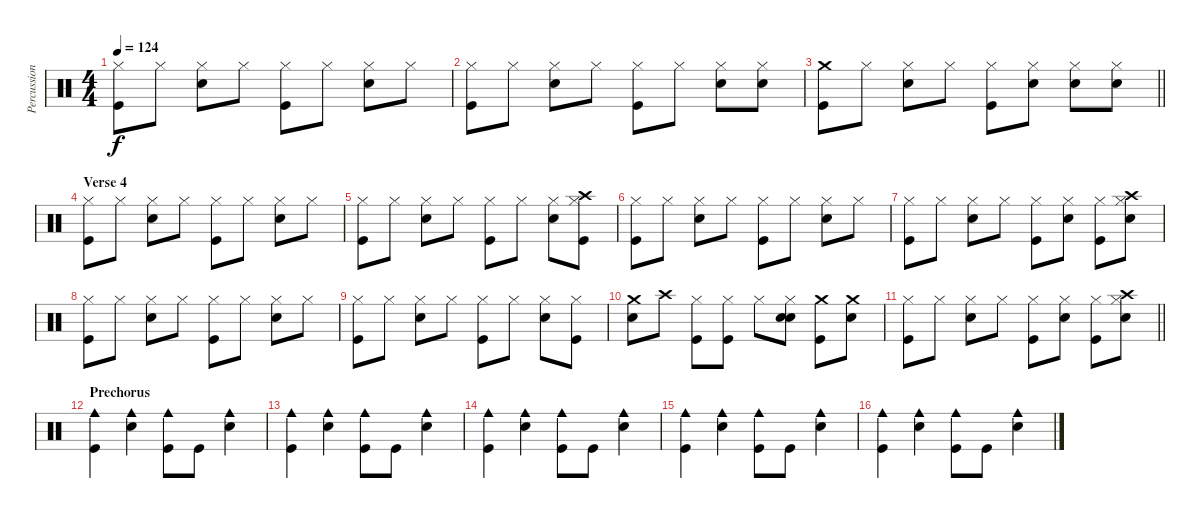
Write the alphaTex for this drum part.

\track ("Percussion" "Percussion") {instrument percussion}
\staff {score}
\articulation defaults
\ts (4 4)
\tempo 124
\clef neutral
\ks c
("Hi-Hat (closed)" "Kick (hit)").8{dy f} "Hi-Hat (closed)".8 ("Hi-Hat (closed)" "Electric Snare (hit)").8 "Hi-Hat (closed)".8 ("Hi-Hat (closed)" "Kick (hit)").8 "Hi-Hat (closed)".8 ("Hi-Hat (closed)" "Electric Snare (hit)").8 "Hi-Hat (closed)".8 |
("Hi-Hat (closed)" "Kick (hit)").8 "Hi-Hat (closed)".8 ("Hi-Hat (closed)" "Electric Snare (hit)").8 "Hi-Hat (closed)".8 ("Hi-Hat (closed)" "Kick (hit)").8 "Hi-Hat (closed)".8 ("Hi-Hat (closed)" "Electric Snare (hit)").8 ("Hi-Hat (closed)" "Electric Snare (hit)").8 |
\barLineRight lightlight
("Crash medium (hit)" "Kick (hit)").8 "Hi-Hat (closed)".8 ("Hi-Hat (closed)" "Electric Snare (hit)").8 "Hi-Hat (closed)".8 ("Hi-Hat (closed)" "Kick (hit)").8 ("Hi-Hat (closed)" "Electric Snare (hit)").8 ("Hi-Hat (closed)" "Electric Snare (hit)").8 ("Hi-Hat (closed)" "Electric Snare (hit)").8 |
\section ("" "Verse 4")
("Hi-Hat (closed)" "Kick (hit)").8 "Hi-Hat (closed)".8 ("Hi-Hat (closed)" "Electric Snare (hit)").8 "Hi-Hat (closed)".8 ("Hi-Hat (closed)" "Kick (hit)").8 "Hi-Hat (closed)".8 ("Hi-Hat (closed)" "Electric Snare (hit)").8 "Hi-Hat (closed)".8 |
("Hi-Hat (closed)" "Kick (hit)").8 "Hi-Hat (closed)".8 ("Hi-Hat (closed)" "Electric Snare (hit)").8 "Hi-Hat (closed)".8 ("Hi-Hat (closed)" "Kick (hit)").8 "Hi-Hat (closed)".8 ("Hi-Hat (closed)" "Electric Snare (hit)").8 ("Hi-Hat (closed)" "Crash high (hit)" "Kick (hit)").8 |
("Hi-Hat (closed)" "Kick (hit)").8 "Hi-Hat (closed)".8 ("Hi-Hat (closed)" "Electric Snare (hit)").8 "Hi-Hat (closed)".8 ("Hi-Hat (closed)" "Kick (hit)").8 "Hi-Hat (closed)".8 ("Hi-Hat (closed)" "Electric Snare (hit)").8 "Hi-Hat (closed)".8 |
("Hi-Hat (closed)" "Kick (hit)").8 "Hi-Hat (closed)".8 ("Hi-Hat (closed)" "Electric Snare (hit)").8 "Hi-Hat (closed)".8 ("Hi-Hat (closed)" "Kick (hit)").8 ("Hi-Hat (closed)" "Electric Snare (hit)").8 ("Hi-Hat (closed)" "Kick (hit)").8 ("Hi-Hat (closed)" "Crash high (hit)" "Electric Snare (hit)").8 |
("Hi-Hat (closed)" "Kick (hit)").8 "Hi-Hat (closed)".8 ("Hi-Hat (closed)" "Electric Snare (hit)").8 "Hi-Hat (closed)".8 ("Hi-Hat (closed)" "Kick (hit)").8 "Hi-Hat (closed)".8 ("Hi-Hat (closed)" "Electric Snare (hit)").8 "Hi-Hat (closed)".8 |
("Hi-Hat (closed)" "Kick (hit)").8 "Hi-Hat (closed)".8 ("Hi-Hat (closed)" "Electric Snare (hit)").8 "Hi-Hat (closed)".8 ("Hi-Hat (closed)" "Kick (hit)").8 "Hi-Hat (closed)".8 ("Hi-Hat (closed)" "Electric Snare (hit)").8 ("Hi-Hat (closed)" "Kick (hit)").8 |
("Crash medium (hit)" "Electric Snare (hit)").8 "Crash high (hit)".8 ("Hi-Hat (closed)" "Kick (hit)").8 ("Hi-Hat (closed)" "Kick (hit)").8 "Hi-Hat (closed)".8 ("Hi-Hat (closed)" "Electric Snare (hit)" "Electric Snare (hit)").8 ("Crash medium (hit)" "Kick (hit)").8 ("Crash medium (hit)" "Electric Snare (hit)").8 |
\barLineRight lightlight
("Hi-Hat (closed)" "Kick (hit)").8 "Hi-Hat (closed)".8 ("Hi-Hat (closed)" "Electric Snare (hit)").8 "Hi-Hat (closed)".8 ("Hi-Hat (closed)" "Kick (hit)").8 ("Hi-Hat (closed)" "Electric Snare (hit)").8 ("Hi-Hat (closed)" "Kick (hit)").8 ("Hi-Hat (closed)" "Crash high (hit)" "Electric Snare (hit)").8 |
\section ("" "Prechorus")
("Cowbell medium (hit)" "Kick (hit)").4 ("Cowbell medium (hit)" "Electric Snare (hit)").4 ("Cowbell medium (hit)" "Kick (hit)").8 "Kick (hit)".8 ("Cowbell medium (hit)" "Electric Snare (hit)").4 |
("Cowbell medium (hit)" "Kick (hit)").4 ("Cowbell medium (hit)" "Electric Snare (hit)").4 ("Cowbell medium (hit)" "Kick (hit)").8 "Kick (hit)".8 ("Cowbell medium (hit)" "Electric Snare (hit)").4 |
("Cowbell medium (hit)" "Kick (hit)").4 ("Cowbell medium (hit)" "Electric Snare (hit)").4 ("Cowbell medium (hit)" "Kick (hit)").8 "Kick (hit)".8 ("Cowbell medium (hit)" "Electric Snare (hit)").4 |
("Cowbell medium (hit)" "Kick (hit)").4 ("Cowbell medium (hit)" "Electric Snare (hit)").4 ("Cowbell medium (hit)" "Kick (hit)").8 "Kick (hit)".8 ("Cowbell medium (hit)" "Electric Snare (hit)").4 |
("Cowbell medium (hit)" "Kick (hit)").4 ("Cowbell medium (hit)" "Electric Snare (hit)").4 ("Cowbell medium (hit)" "Kick (hit)").8 "Kick (hit)".8 ("Cowbell medium (hit)" "Electric Snare (hit)").4
